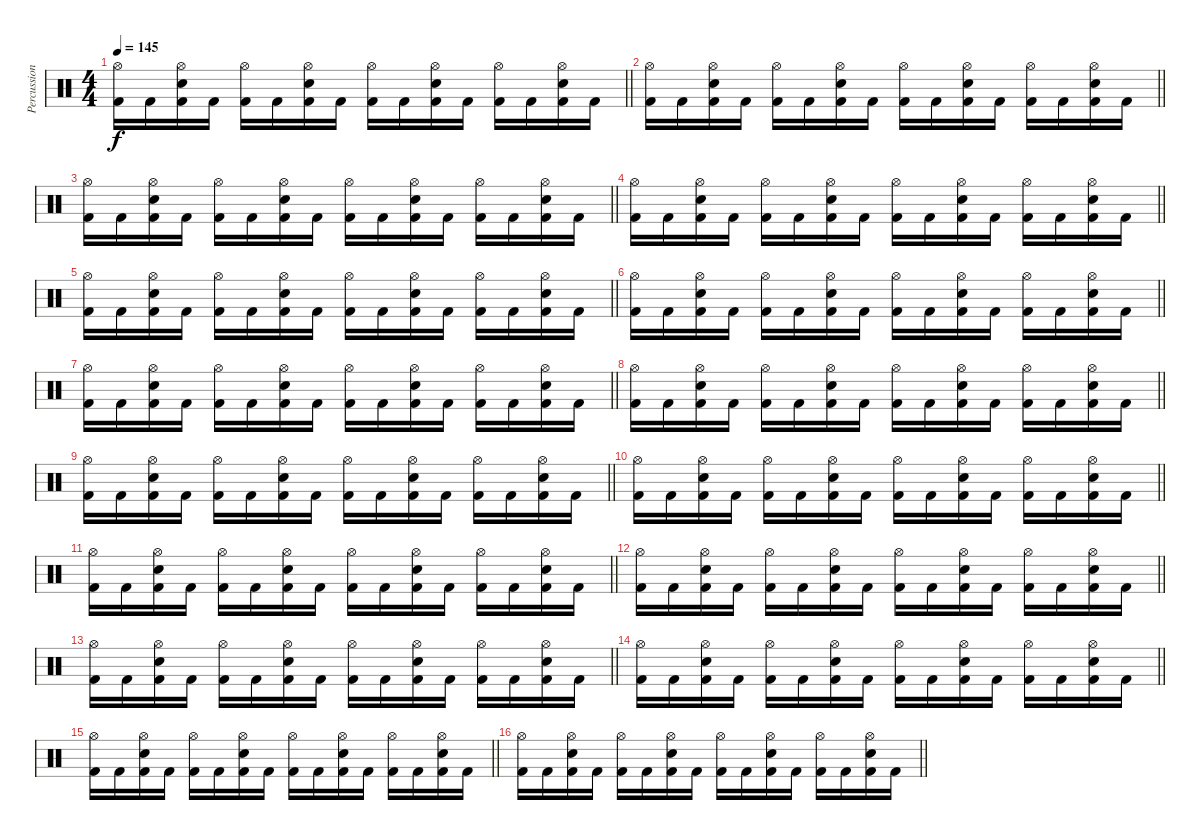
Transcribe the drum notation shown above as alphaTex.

\track ("Percussion" "Percussion") {instrument percussion}
\staff {score}
\articulation defaults
\ts (4 4)
\tempo 145
\clef neutral
\barLineRight lightlight
\ks c
("Hi-Hat (open)" "Kick (hit) 2").16{dy f} "Kick (hit) 2".16 ("Hi-Hat (open)" "Electric Snare (hit)" "Kick (hit) 2").16 "Kick (hit) 2".16 ("Hi-Hat (open)" "Kick (hit) 2").16 "Kick (hit) 2".16 ("Hi-Hat (open)" "Electric Snare (hit)" "Kick (hit) 2").16 "Kick (hit) 2".16 ("Hi-Hat (open)" "Kick (hit) 2").16 "Kick (hit) 2".16 ("Hi-Hat (open)" "Electric Snare (hit)" "Kick (hit) 2").16 "Kick (hit) 2".16 ("Hi-Hat (open)" "Kick (hit) 2").16 "Kick (hit) 2".16 ("Hi-Hat (open)" "Electric Snare (hit)" "Kick (hit) 2").16 "Kick (hit) 2".16 |
\barLineRight lightlight
("Hi-Hat (open)" "Kick (hit) 2").16 "Kick (hit) 2".16 ("Hi-Hat (open)" "Electric Snare (hit)" "Kick (hit) 2").16 "Kick (hit) 2".16 ("Hi-Hat (open)" "Kick (hit) 2").16 "Kick (hit) 2".16 ("Hi-Hat (open)" "Electric Snare (hit)" "Kick (hit) 2").16 "Kick (hit) 2".16 ("Hi-Hat (open)" "Kick (hit) 2").16 "Kick (hit) 2".16 ("Hi-Hat (open)" "Electric Snare (hit)" "Kick (hit) 2").16 "Kick (hit) 2".16 ("Hi-Hat (open)" "Kick (hit) 2").16 "Kick (hit) 2".16 ("Hi-Hat (open)" "Electric Snare (hit)" "Kick (hit) 2").16 "Kick (hit) 2".16 |
\barLineRight lightlight
("Hi-Hat (open)" "Kick (hit) 2").16 "Kick (hit) 2".16 ("Hi-Hat (open)" "Electric Snare (hit)" "Kick (hit) 2").16 "Kick (hit) 2".16 ("Hi-Hat (open)" "Kick (hit) 2").16 "Kick (hit) 2".16 ("Hi-Hat (open)" "Electric Snare (hit)" "Kick (hit) 2").16 "Kick (hit) 2".16 ("Hi-Hat (open)" "Kick (hit) 2").16 "Kick (hit) 2".16 ("Hi-Hat (open)" "Electric Snare (hit)" "Kick (hit) 2").16 "Kick (hit) 2".16 ("Hi-Hat (open)" "Kick (hit) 2").16 "Kick (hit) 2".16 ("Hi-Hat (open)" "Electric Snare (hit)" "Kick (hit) 2").16 "Kick (hit) 2".16 |
\barLineRight lightlight
("Hi-Hat (open)" "Kick (hit) 2").16 "Kick (hit) 2".16 ("Hi-Hat (open)" "Electric Snare (hit)" "Kick (hit) 2").16 "Kick (hit) 2".16 ("Hi-Hat (open)" "Kick (hit) 2").16 "Kick (hit) 2".16 ("Hi-Hat (open)" "Electric Snare (hit)" "Kick (hit) 2").16 "Kick (hit) 2".16 ("Hi-Hat (open)" "Kick (hit) 2").16 "Kick (hit) 2".16 ("Hi-Hat (open)" "Electric Snare (hit)" "Kick (hit) 2").16 "Kick (hit) 2".16 ("Hi-Hat (open)" "Kick (hit) 2").16 "Kick (hit) 2".16 ("Hi-Hat (open)" "Electric Snare (hit)" "Kick (hit) 2").16 "Kick (hit) 2".16 |
\section ("" "")
\barLineRight lightlight
("Hi-Hat (open)" "Kick (hit) 2").16 "Kick (hit) 2".16 ("Hi-Hat (open)" "Electric Snare (hit)" "Kick (hit) 2").16 "Kick (hit) 2".16 ("Hi-Hat (open)" "Kick (hit) 2").16 "Kick (hit) 2".16 ("Hi-Hat (open)" "Electric Snare (hit)" "Kick (hit) 2").16 "Kick (hit) 2".16 ("Hi-Hat (open)" "Kick (hit) 2").16 "Kick (hit) 2".16 ("Hi-Hat (open)" "Electric Snare (hit)" "Kick (hit) 2").16 "Kick (hit) 2".16 ("Hi-Hat (open)" "Kick (hit) 2").16 "Kick (hit) 2".16 ("Hi-Hat (open)" "Electric Snare (hit)" "Kick (hit) 2").16 "Kick (hit) 2".16 |
\barLineRight lightlight
("Hi-Hat (open)" "Kick (hit) 2").16 "Kick (hit) 2".16 ("Hi-Hat (open)" "Electric Snare (hit)" "Kick (hit) 2").16 "Kick (hit) 2".16 ("Hi-Hat (open)" "Kick (hit) 2").16 "Kick (hit) 2".16 ("Hi-Hat (open)" "Electric Snare (hit)" "Kick (hit) 2").16 "Kick (hit) 2".16 ("Hi-Hat (open)" "Kick (hit) 2").16 "Kick (hit) 2".16 ("Hi-Hat (open)" "Electric Snare (hit)" "Kick (hit) 2").16 "Kick (hit) 2".16 ("Hi-Hat (open)" "Kick (hit) 2").16 "Kick (hit) 2".16 ("Hi-Hat (open)" "Electric Snare (hit)" "Kick (hit) 2").16 "Kick (hit) 2".16 |
\barLineRight lightlight
("Hi-Hat (open)" "Kick (hit) 2").16 "Kick (hit) 2".16 ("Hi-Hat (open)" "Electric Snare (hit)" "Kick (hit) 2").16 "Kick (hit) 2".16 ("Hi-Hat (open)" "Kick (hit) 2").16 "Kick (hit) 2".16 ("Hi-Hat (open)" "Electric Snare (hit)" "Kick (hit) 2").16 "Kick (hit) 2".16 ("Hi-Hat (open)" "Kick (hit) 2").16 "Kick (hit) 2".16 ("Hi-Hat (open)" "Electric Snare (hit)" "Kick (hit) 2").16 "Kick (hit) 2".16 ("Hi-Hat (open)" "Kick (hit) 2").16 "Kick (hit) 2".16 ("Hi-Hat (open)" "Electric Snare (hit)" "Kick (hit) 2").16 "Kick (hit) 2".16 |
\barLineRight lightlight
("Hi-Hat (open)" "Kick (hit) 2").16 "Kick (hit) 2".16 ("Hi-Hat (open)" "Electric Snare (hit)" "Kick (hit) 2").16 "Kick (hit) 2".16 ("Hi-Hat (open)" "Kick (hit) 2").16 "Kick (hit) 2".16 ("Hi-Hat (open)" "Electric Snare (hit)" "Kick (hit) 2").16 "Kick (hit) 2".16 ("Hi-Hat (open)" "Kick (hit) 2").16 "Kick (hit) 2".16 ("Hi-Hat (open)" "Electric Snare (hit)" "Kick (hit) 2").16 "Kick (hit) 2".16 ("Hi-Hat (open)" "Kick (hit) 2").16 "Kick (hit) 2".16 ("Hi-Hat (open)" "Electric Snare (hit)" "Kick (hit) 2").16 "Kick (hit) 2".16 |
\barLineRight lightlight
("Hi-Hat (open)" "Kick (hit) 2").16 "Kick (hit) 2".16 ("Hi-Hat (open)" "Electric Snare (hit)" "Kick (hit) 2").16 "Kick (hit) 2".16 ("Hi-Hat (open)" "Kick (hit) 2").16 "Kick (hit) 2".16 ("Hi-Hat (open)" "Electric Snare (hit)" "Kick (hit) 2").16 "Kick (hit) 2".16 ("Hi-Hat (open)" "Kick (hit) 2").16 "Kick (hit) 2".16 ("Hi-Hat (open)" "Electric Snare (hit)" "Kick (hit) 2").16 "Kick (hit) 2".16 ("Hi-Hat (open)" "Kick (hit) 2").16 "Kick (hit) 2".16 ("Hi-Hat (open)" "Electric Snare (hit)" "Kick (hit) 2").16 "Kick (hit) 2".16 |
\barLineRight lightlight
("Hi-Hat (open)" "Kick (hit) 2").16 "Kick (hit) 2".16 ("Hi-Hat (open)" "Electric Snare (hit)" "Kick (hit) 2").16 "Kick (hit) 2".16 ("Hi-Hat (open)" "Kick (hit) 2").16 "Kick (hit) 2".16 ("Hi-Hat (open)" "Electric Snare (hit)" "Kick (hit) 2").16 "Kick (hit) 2".16 ("Hi-Hat (open)" "Kick (hit) 2").16 "Kick (hit) 2".16 ("Hi-Hat (open)" "Electric Snare (hit)" "Kick (hit) 2").16 "Kick (hit) 2".16 ("Hi-Hat (open)" "Kick (hit) 2").16 "Kick (hit) 2".16 ("Hi-Hat (open)" "Electric Snare (hit)" "Kick (hit) 2").16 "Kick (hit) 2".16 |
\barLineRight lightlight
("Hi-Hat (open)" "Kick (hit) 2").16 "Kick (hit) 2".16 ("Hi-Hat (open)" "Electric Snare (hit)" "Kick (hit) 2").16 "Kick (hit) 2".16 ("Hi-Hat (open)" "Kick (hit) 2").16 "Kick (hit) 2".16 ("Hi-Hat (open)" "Electric Snare (hit)" "Kick (hit) 2").16 "Kick (hit) 2".16 ("Hi-Hat (open)" "Kick (hit) 2").16 "Kick (hit) 2".16 ("Hi-Hat (open)" "Electric Snare (hit)" "Kick (hit) 2").16 "Kick (hit) 2".16 ("Hi-Hat (open)" "Kick (hit) 2").16 "Kick (hit) 2".16 ("Hi-Hat (open)" "Electric Snare (hit)" "Kick (hit) 2").16 "Kick (hit) 2".16 |
\barLineRight lightlight
("Hi-Hat (open)" "Kick (hit) 2").16 "Kick (hit) 2".16 ("Hi-Hat (open)" "Electric Snare (hit)" "Kick (hit) 2").16 "Kick (hit) 2".16 ("Hi-Hat (open)" "Kick (hit) 2").16 "Kick (hit) 2".16 ("Hi-Hat (open)" "Electric Snare (hit)" "Kick (hit) 2").16 "Kick (hit) 2".16 ("Hi-Hat (open)" "Kick (hit) 2").16 "Kick (hit) 2".16 ("Hi-Hat (open)" "Electric Snare (hit)" "Kick (hit) 2").16 "Kick (hit) 2".16 ("Hi-Hat (open)" "Kick (hit) 2").16 "Kick (hit) 2".16 ("Hi-Hat (open)" "Electric Snare (hit)" "Kick (hit) 2").16 "Kick (hit) 2".16 |
\barLineRight lightlight
("Hi-Hat (open)" "Kick (hit) 2").16 "Kick (hit) 2".16 ("Hi-Hat (open)" "Electric Snare (hit)" "Kick (hit) 2").16 "Kick (hit) 2".16 ("Hi-Hat (open)" "Kick (hit) 2").16 "Kick (hit) 2".16 ("Hi-Hat (open)" "Electric Snare (hit)" "Kick (hit) 2").16 "Kick (hit) 2".16 ("Hi-Hat (open)" "Kick (hit) 2").16 "Kick (hit) 2".16 ("Hi-Hat (open)" "Electric Snare (hit)" "Kick (hit) 2").16 "Kick (hit) 2".16 ("Hi-Hat (open)" "Kick (hit) 2").16 "Kick (hit) 2".16 ("Hi-Hat (open)" "Electric Snare (hit)" "Kick (hit) 2").16 "Kick (hit) 2".16 |
\barLineRight lightlight
("Hi-Hat (open)" "Kick (hit) 2").16 "Kick (hit) 2".16 ("Hi-Hat (open)" "Electric Snare (hit)" "Kick (hit) 2").16 "Kick (hit) 2".16 ("Hi-Hat (open)" "Kick (hit) 2").16 "Kick (hit) 2".16 ("Hi-Hat (open)" "Electric Snare (hit)" "Kick (hit) 2").16 "Kick (hit) 2".16 ("Hi-Hat (open)" "Kick (hit) 2").16 "Kick (hit) 2".16 ("Hi-Hat (open)" "Electric Snare (hit)" "Kick (hit) 2").16 "Kick (hit) 2".16 ("Hi-Hat (open)" "Kick (hit) 2").16 "Kick (hit) 2".16 ("Hi-Hat (open)" "Electric Snare (hit)" "Kick (hit) 2").16 "Kick (hit) 2".16 |
\barLineRight lightlight
("Hi-Hat (open)" "Kick (hit) 2").16 "Kick (hit) 2".16 ("Hi-Hat (open)" "Electric Snare (hit)" "Kick (hit) 2").16 "Kick (hit) 2".16 ("Hi-Hat (open)" "Kick (hit) 2").16 "Kick (hit) 2".16 ("Hi-Hat (open)" "Electric Snare (hit)" "Kick (hit) 2").16 "Kick (hit) 2".16 ("Hi-Hat (open)" "Kick (hit) 2").16 "Kick (hit) 2".16 ("Hi-Hat (open)" "Electric Snare (hit)" "Kick (hit) 2").16 "Kick (hit) 2".16 ("Hi-Hat (open)" "Kick (hit) 2").16 "Kick (hit) 2".16 ("Hi-Hat (open)" "Electric Snare (hit)" "Kick (hit) 2").16 "Kick (hit) 2".16 |
\barLineRight lightlight
("Hi-Hat (open)" "Kick (hit) 2").16 "Kick (hit) 2".16 ("Hi-Hat (open)" "Electric Snare (hit)" "Kick (hit) 2").16 "Kick (hit) 2".16 ("Hi-Hat (open)" "Kick (hit) 2").16 "Kick (hit) 2".16 ("Hi-Hat (open)" "Electric Snare (hit)" "Kick (hit) 2").16 "Kick (hit) 2".16 ("Hi-Hat (open)" "Kick (hit) 2").16 "Kick (hit) 2".16 ("Hi-Hat (open)" "Electric Snare (hit)" "Kick (hit) 2").16 "Kick (hit) 2".16 ("Hi-Hat (open)" "Kick (hit) 2").16 "Kick (hit) 2".16 ("Hi-Hat (open)" "Electric Snare (hit)" "Kick (hit) 2").16 "Kick (hit) 2".16
